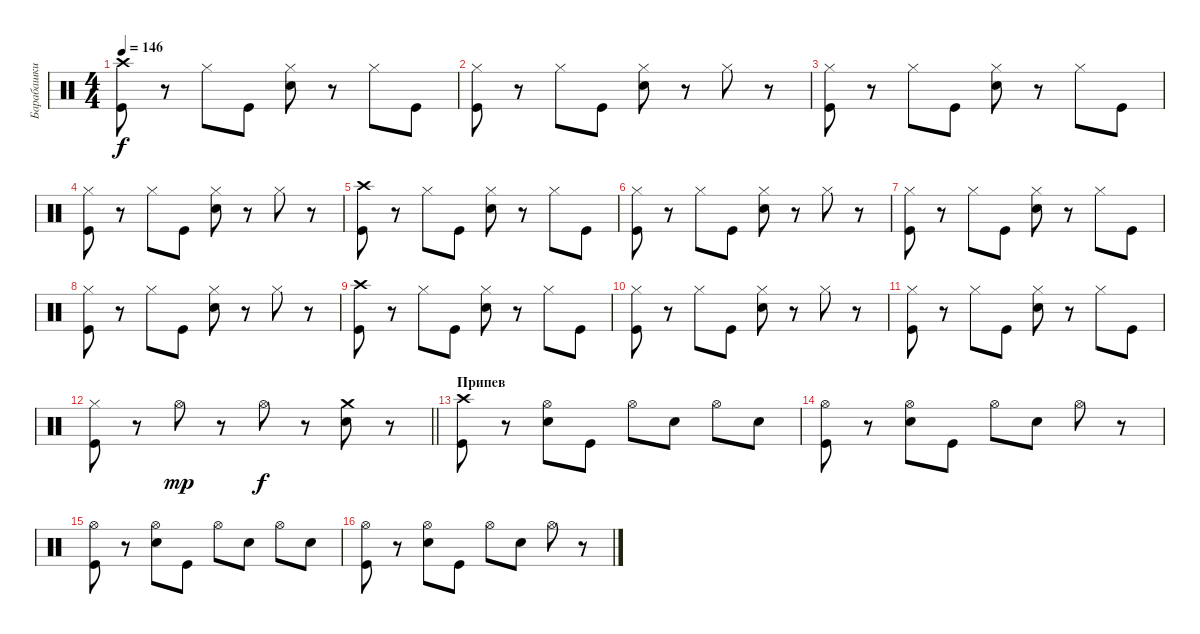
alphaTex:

\track ("Барабашки" "Барабашки") {instrument percussion}
\staff {score}
\articulation defaults
\ts (4 4)
\tempo 146
\clef neutral
\ks c
("Crash high (hit)" "Kick (hit)").8{dy f} r.8 "Hi-Hat (closed)".8 "Kick (hit)".8 ("Hi-Hat (closed)" "Snare (hit) 2").8 r.8 "Hi-Hat (closed)".8 "Kick (hit)".8 |
("Hi-Hat (closed)" "Kick (hit)").8 r.8 "Hi-Hat (closed)".8 "Kick (hit)".8 ("Hi-Hat (closed)" "Snare (hit) 2").8 r.8 "Hi-Hat (closed)".8 r.8 |
("Hi-Hat (closed)" "Kick (hit)").8 r.8 "Hi-Hat (closed)".8 "Kick (hit)".8 ("Hi-Hat (closed)" "Snare (hit) 2").8 r.8 "Hi-Hat (closed)".8 "Kick (hit)".8 |
("Hi-Hat (closed)" "Kick (hit)").8 r.8 "Hi-Hat (closed)".8 "Kick (hit)".8 ("Hi-Hat (closed)" "Snare (hit) 2").8 r.8 "Hi-Hat (closed)".8 r.8 |
("Crash high (hit)" "Kick (hit)").8 r.8 "Hi-Hat (closed)".8 "Kick (hit)".8 ("Hi-Hat (closed)" "Snare (hit) 2").8 r.8 "Hi-Hat (closed)".8 "Kick (hit)".8 |
("Hi-Hat (closed)" "Kick (hit)").8 r.8 "Hi-Hat (closed)".8 "Kick (hit)".8 ("Hi-Hat (closed)" "Snare (hit) 2").8 r.8 "Hi-Hat (closed)".8 r.8 |
("Hi-Hat (closed)" "Kick (hit)").8 r.8 "Hi-Hat (closed)".8 "Kick (hit)".8 ("Hi-Hat (closed)" "Snare (hit) 2").8 r.8 "Hi-Hat (closed)".8 "Kick (hit)".8 |
("Hi-Hat (closed)" "Kick (hit)").8 r.8 "Hi-Hat (closed)".8 "Kick (hit)".8 ("Hi-Hat (closed)" "Snare (hit) 2").8 r.8 "Hi-Hat (closed)".8 r.8 |
("Crash high (hit)" "Kick (hit)").8 r.8 "Hi-Hat (closed)".8 "Kick (hit)".8 ("Hi-Hat (closed)" "Snare (hit) 2").8 r.8 "Hi-Hat (closed)".8 "Kick (hit)".8 |
("Hi-Hat (closed)" "Kick (hit)").8 r.8 "Hi-Hat (closed)".8 "Kick (hit)".8 ("Hi-Hat (closed)" "Snare (hit) 2").8 r.8 "Hi-Hat (closed)".8 r.8 |
("Hi-Hat (closed)" "Kick (hit)").8 r.8 "Hi-Hat (closed)".8 "Kick (hit)".8 ("Hi-Hat (closed)" "Snare (hit) 2").8 r.8 "Hi-Hat (closed)".8 "Kick (hit)".8 |
\barLineRight lightlight
("Hi-Hat (closed)" "Kick (hit)").8 r.8 "Hi-Hat (open)".8{dy mp} r.8 "Hi-Hat (open)".8{dy f} r.8 ("Crash medium (hit)" "Snare (hit) 2").8 r.8 |
\section ("" "Припев")
("Crash high (hit)" "Kick (hit)").8 r.8 ("Hi-Hat (open)" "Snare (hit) 2").8 "Kick (hit)".8 "Hi-Hat (open)".8 "Snare (hit) 2".8 "Hi-Hat (open)".8 "Snare (hit) 2".8 |
("Hi-Hat (open)" "Kick (hit)").8 r.8 ("Hi-Hat (open)" "Snare (hit) 2").8 "Kick (hit)".8 "Hi-Hat (open)".8 "Snare (hit) 2".8 "Hi-Hat (open)".8 r.8 |
("Hi-Hat (open)" "Kick (hit)").8 r.8 ("Hi-Hat (open)" "Snare (hit) 2").8 "Kick (hit)".8 "Hi-Hat (open)".8 "Snare (hit) 2".8 "Hi-Hat (open)".8 "Snare (hit) 2".8 |
("Hi-Hat (open)" "Kick (hit)").8 r.8 ("Hi-Hat (open)" "Snare (hit) 2").8 "Kick (hit)".8 "Hi-Hat (open)".8 "Snare (hit) 2".8 "Hi-Hat (open)".8 r.8
